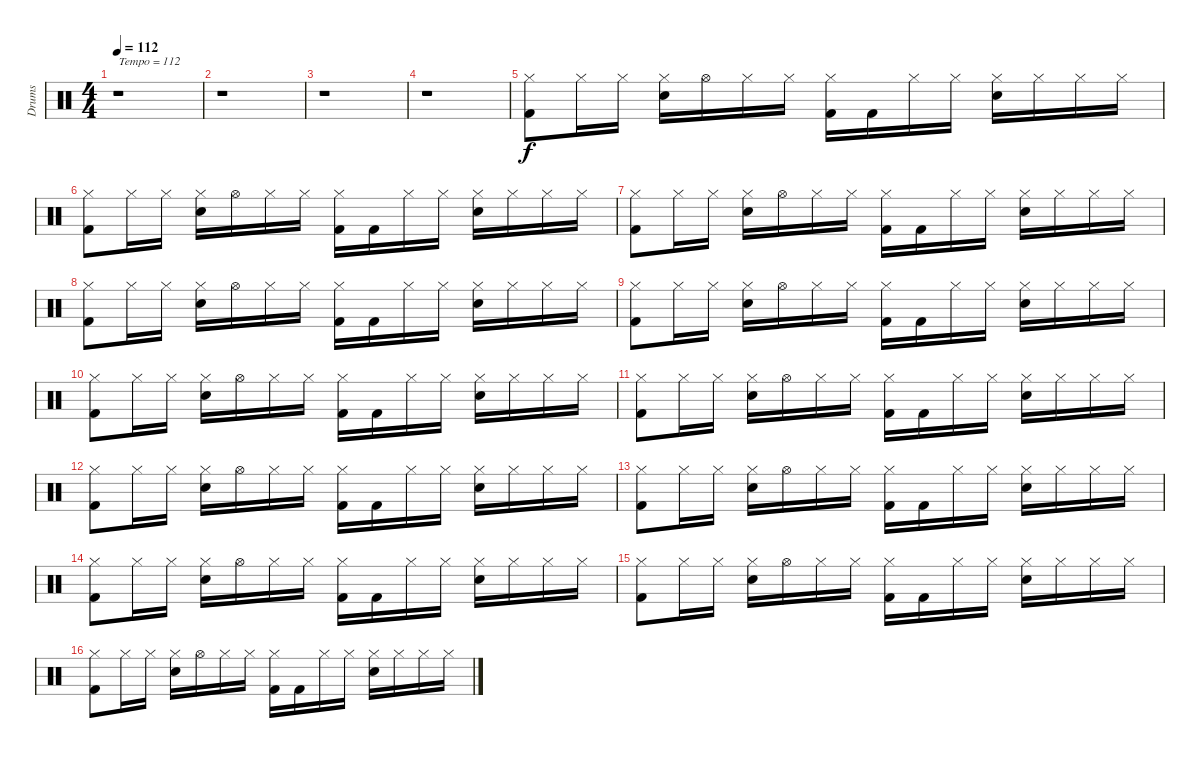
\track ("Drums" "Drums") {instrument percussion}
\staff {score}
\articulation defaults
\ts (4 4)
\tempo 112
\clef neutral
\ks c
r.1{txt "Tempo = 112" dy f} |
r.1 |
r.1 |
r.1 |
("Hi-Hat (closed)" "Kick (hit) 2").8 "Hi-Hat (closed)".16 "Hi-Hat (closed)".16 ("Hi-Hat (closed)" "Electric Snare (hit)").16 "Hi-Hat (open)".16 "Hi-Hat (closed)".16 "Hi-Hat (closed)".16 ("Hi-Hat (closed)" "Kick (hit) 2").16 "Kick (hit) 2".16 "Hi-Hat (closed)".16 "Hi-Hat (closed)".16 ("Hi-Hat (closed)" "Electric Snare (hit)").16 "Hi-Hat (closed)".16 "Hi-Hat (closed)".16 "Hi-Hat (closed)".16 |
("Hi-Hat (closed)" "Kick (hit) 2").8 "Hi-Hat (closed)".16 "Hi-Hat (closed)".16 ("Hi-Hat (closed)" "Electric Snare (hit)").16 "Hi-Hat (open)".16 "Hi-Hat (closed)".16 "Hi-Hat (closed)".16 ("Hi-Hat (closed)" "Kick (hit) 2").16 "Kick (hit) 2".16 "Hi-Hat (closed)".16 "Hi-Hat (closed)".16 ("Hi-Hat (closed)" "Electric Snare (hit)").16 "Hi-Hat (closed)".16 "Hi-Hat (closed)".16 "Hi-Hat (closed)".16 |
("Hi-Hat (closed)" "Kick (hit) 2").8 "Hi-Hat (closed)".16 "Hi-Hat (closed)".16 ("Hi-Hat (closed)" "Electric Snare (hit)").16 "Hi-Hat (open)".16 "Hi-Hat (closed)".16 "Hi-Hat (closed)".16 ("Hi-Hat (closed)" "Kick (hit) 2").16 "Kick (hit) 2".16 "Hi-Hat (closed)".16 "Hi-Hat (closed)".16 ("Hi-Hat (closed)" "Electric Snare (hit)").16 "Hi-Hat (closed)".16 "Hi-Hat (closed)".16 "Hi-Hat (closed)".16 |
("Hi-Hat (closed)" "Kick (hit) 2").8 "Hi-Hat (closed)".16 "Hi-Hat (closed)".16 ("Hi-Hat (closed)" "Electric Snare (hit)").16 "Hi-Hat (open)".16 "Hi-Hat (closed)".16 "Hi-Hat (closed)".16 ("Hi-Hat (closed)" "Kick (hit) 2").16 "Kick (hit) 2".16 "Hi-Hat (closed)".16 "Hi-Hat (closed)".16 ("Hi-Hat (closed)" "Electric Snare (hit)").16 "Hi-Hat (closed)".16 "Hi-Hat (closed)".16 "Hi-Hat (closed)".16 |
("Hi-Hat (closed)" "Kick (hit) 2").8 "Hi-Hat (closed)".16 "Hi-Hat (closed)".16 ("Hi-Hat (closed)" "Electric Snare (hit)").16 "Hi-Hat (open)".16 "Hi-Hat (closed)".16 "Hi-Hat (closed)".16 ("Hi-Hat (closed)" "Kick (hit) 2").16 "Kick (hit) 2".16 "Hi-Hat (closed)".16 "Hi-Hat (closed)".16 ("Hi-Hat (closed)" "Electric Snare (hit)").16 "Hi-Hat (closed)".16 "Hi-Hat (closed)".16 "Hi-Hat (closed)".16 |
("Hi-Hat (closed)" "Kick (hit) 2").8 "Hi-Hat (closed)".16 "Hi-Hat (closed)".16 ("Hi-Hat (closed)" "Electric Snare (hit)").16 "Hi-Hat (open)".16 "Hi-Hat (closed)".16 "Hi-Hat (closed)".16 ("Hi-Hat (closed)" "Kick (hit) 2").16 "Kick (hit) 2".16 "Hi-Hat (closed)".16 "Hi-Hat (closed)".16 ("Hi-Hat (closed)" "Electric Snare (hit)").16 "Hi-Hat (closed)".16 "Hi-Hat (closed)".16 "Hi-Hat (closed)".16 |
("Hi-Hat (closed)" "Kick (hit) 2").8 "Hi-Hat (closed)".16 "Hi-Hat (closed)".16 ("Hi-Hat (closed)" "Electric Snare (hit)").16 "Hi-Hat (open)".16 "Hi-Hat (closed)".16 "Hi-Hat (closed)".16 ("Hi-Hat (closed)" "Kick (hit) 2").16 "Kick (hit) 2".16 "Hi-Hat (closed)".16 "Hi-Hat (closed)".16 ("Hi-Hat (closed)" "Electric Snare (hit)").16 "Hi-Hat (closed)".16 "Hi-Hat (closed)".16 "Hi-Hat (closed)".16 |
("Hi-Hat (closed)" "Kick (hit) 2").8 "Hi-Hat (closed)".16 "Hi-Hat (closed)".16 ("Hi-Hat (closed)" "Electric Snare (hit)").16 "Hi-Hat (open)".16 "Hi-Hat (closed)".16 "Hi-Hat (closed)".16 ("Hi-Hat (closed)" "Kick (hit) 2").16 "Kick (hit) 2".16 "Hi-Hat (closed)".16 "Hi-Hat (closed)".16 ("Hi-Hat (closed)" "Electric Snare (hit)").16 "Hi-Hat (closed)".16 "Hi-Hat (closed)".16 "Hi-Hat (closed)".16 |
("Hi-Hat (closed)" "Kick (hit) 2").8 "Hi-Hat (closed)".16 "Hi-Hat (closed)".16 ("Hi-Hat (closed)" "Electric Snare (hit)").16 "Hi-Hat (open)".16 "Hi-Hat (closed)".16 "Hi-Hat (closed)".16 ("Hi-Hat (closed)" "Kick (hit) 2").16 "Kick (hit) 2".16 "Hi-Hat (closed)".16 "Hi-Hat (closed)".16 ("Hi-Hat (closed)" "Electric Snare (hit)").16 "Hi-Hat (closed)".16 "Hi-Hat (closed)".16 "Hi-Hat (closed)".16 |
("Hi-Hat (closed)" "Kick (hit) 2").8 "Hi-Hat (closed)".16 "Hi-Hat (closed)".16 ("Hi-Hat (closed)" "Electric Snare (hit)").16 "Hi-Hat (open)".16 "Hi-Hat (closed)".16 "Hi-Hat (closed)".16 ("Hi-Hat (closed)" "Kick (hit) 2").16 "Kick (hit) 2".16 "Hi-Hat (closed)".16 "Hi-Hat (closed)".16 ("Hi-Hat (closed)" "Electric Snare (hit)").16 "Hi-Hat (closed)".16 "Hi-Hat (closed)".16 "Hi-Hat (closed)".16 |
("Hi-Hat (closed)" "Kick (hit) 2").8 "Hi-Hat (closed)".16 "Hi-Hat (closed)".16 ("Hi-Hat (closed)" "Electric Snare (hit)").16 "Hi-Hat (open)".16 "Hi-Hat (closed)".16 "Hi-Hat (closed)".16 ("Hi-Hat (closed)" "Kick (hit) 2").16 "Kick (hit) 2".16 "Hi-Hat (closed)".16 "Hi-Hat (closed)".16 ("Hi-Hat (closed)" "Electric Snare (hit)").16 "Hi-Hat (closed)".16 "Hi-Hat (closed)".16 "Hi-Hat (closed)".16 |
("Hi-Hat (closed)" "Kick (hit) 2").8 "Hi-Hat (closed)".16 "Hi-Hat (closed)".16 ("Hi-Hat (closed)" "Electric Snare (hit)").16 "Hi-Hat (open)".16 "Hi-Hat (closed)".16 "Hi-Hat (closed)".16 ("Hi-Hat (closed)" "Kick (hit) 2").16 "Kick (hit) 2".16 "Hi-Hat (closed)".16 "Hi-Hat (closed)".16 ("Hi-Hat (closed)" "Electric Snare (hit)").16 "Hi-Hat (closed)".16 "Hi-Hat (closed)".16 "Hi-Hat (closed)".16
